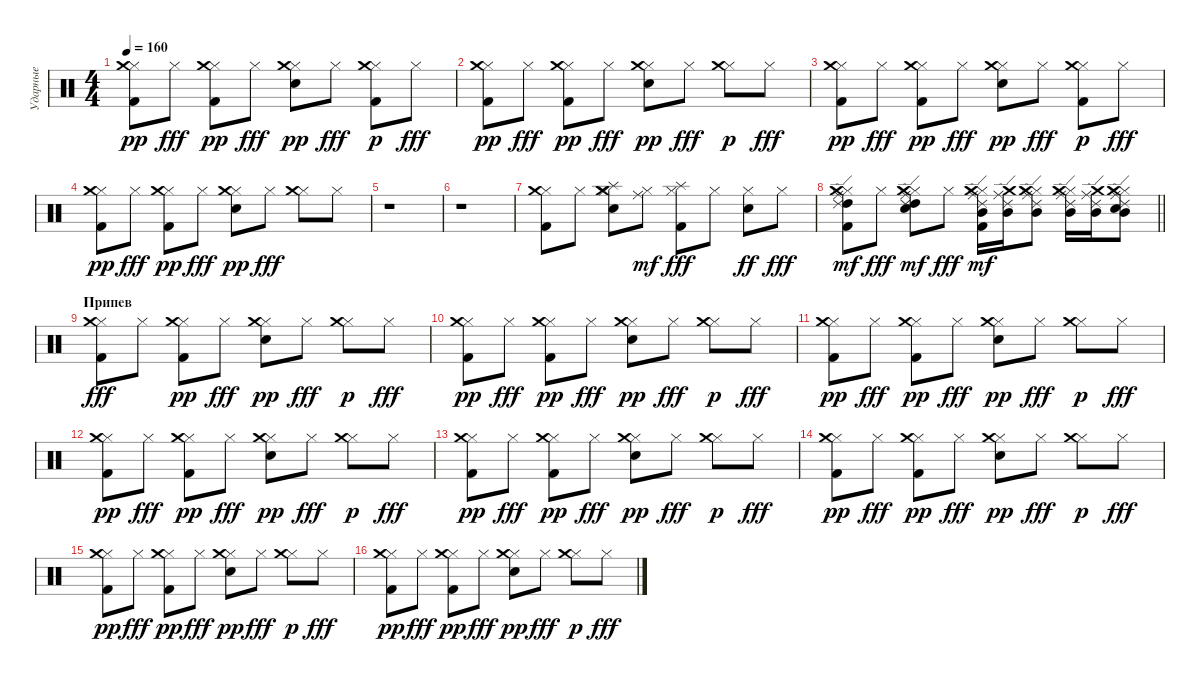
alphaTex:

\track ("Ударные" "Ударные") {instrument percussion}
\staff {score}
\articulation defaults
\ts (4 4)
\tempo 160
\clef neutral
\ks c
("Hi-Hat (closed)" "Kick (hit) 2" "Crash medium (hit)").8{dy pp} "Hi-Hat (closed)".8{dy fff} ("Hi-Hat (closed)" "Kick (hit) 2" "Crash medium (hit)").8{dy pp} "Hi-Hat (closed)".8{dy fff} ("Hi-Hat (closed)" "Snare (hit) 2" "Crash medium (hit)").8{dy pp} "Hi-Hat (closed)".8{dy fff} ("Hi-Hat (closed)" "Kick (hit) 2" "Crash medium (hit)").8{dy p} "Hi-Hat (closed)".8{dy fff} |
("Hi-Hat (closed)" "Kick (hit) 2" "Crash medium (hit)").8{dy pp} "Hi-Hat (closed)".8{dy fff} ("Hi-Hat (closed)" "Kick (hit) 2" "Crash medium (hit)").8{dy pp} "Hi-Hat (closed)".8{dy fff} ("Hi-Hat (closed)" "Snare (hit) 2" "Crash medium (hit)").8{dy pp} "Hi-Hat (closed)".8{dy fff} ("Hi-Hat (closed)" "Crash medium (hit)").8{dy p} "Hi-Hat (closed)".8{dy fff} |
("Hi-Hat (closed)" "Kick (hit) 2" "Crash medium (hit)").8{dy pp} "Hi-Hat (closed)".8{dy fff} ("Hi-Hat (closed)" "Kick (hit) 2" "Crash medium (hit)").8{dy pp} "Hi-Hat (closed)".8{dy fff} ("Hi-Hat (closed)" "Snare (hit) 2" "Crash medium (hit)").8{dy pp} "Hi-Hat (closed)".8{dy fff} ("Hi-Hat (closed)" "Kick (hit) 2" "Crash medium (hit)").8{dy p} "Hi-Hat (closed)".8{dy fff} |
("Hi-Hat (closed)" "Kick (hit) 2" "Crash medium (hit)").8{dy pp} "Hi-Hat (closed)".8{dy fff} ("Hi-Hat (closed)" "Kick (hit) 2" "Crash medium (hit)").8{dy pp} "Hi-Hat (closed)".8{dy fff} ("Hi-Hat (closed)" "Snare (hit) 2" "Crash medium (hit)").8{dy pp} "Hi-Hat (closed)".8{dy fff} ("Hi-Hat (closed)" "Crash medium (hit)").8 "Hi-Hat (closed)".8 |
r.1 |
r.1 |
("Hi-Hat (closed)" "Kick (hit) 2" "Crash medium (hit)").8 "Hi-Hat (closed)".8 ("Hi-Hat (closed)" "Snare (hit) 2" "Crash medium (hit)" "Splash (hit)").8 ("Hi-Hat (closed)" "Ride (middle)").8{dy mf} ("Hi-Hat (closed)" "Kick (hit) 2" "Splash (hit)").8{dy fff} "Hi-Hat (closed)".8 ("Hi-Hat (closed)" "Snare (hit) 2").8{dy ff} "Hi-Hat (closed)".8{dy fff} |
\barLineRight lightlight
("Hi-Hat (closed)" "Kick (hit) 2" "High Tom (hit)" "Ride (middle)" "Ride (edge) 2" "Crash medium (hit)").8{dy mf} "Hi-Hat (closed)".8{dy fff} ("Hi-Hat (closed)" "Snare (hit) 2" "High Tom (hit)" "Ride (middle)" "Ride (edge) 2" "Crash medium (hit)").8{dy mf} "Hi-Hat (closed)".8{dy fff} ("Hi-Hat (closed)" "Kick (hit) 2" "Mid Tom (hit)" "Ride (middle)" "Ride (edge) 2" "Crash medium (hit)").16{dy mf} ("Mid Tom (hit)" "Ride (middle)" "Ride (edge) 2" "Crash medium (hit)").16 ("Hi-Hat (closed)" "Mid Tom (hit)" "Ride (middle)" "Ride (edge) 2" "Crash medium (hit)").8 ("Hi-Hat (closed)" "Mid Tom (hit)" "Ride (middle)" "Ride (edge) 2" "Crash medium (hit)").16 ("Mid Tom (hit)" "Ride (middle)" "Ride (edge) 2" "Crash medium (hit)").16 ("Hi-Hat (closed)" "Snare (hit) 2" "Mid Tom (hit)" "Ride (middle)" "Ride (edge) 2" "Crash medium (hit)").8 |
\section ("" "Припев")
("Hi-Hat (closed)" "Kick (hit) 2" "Crash medium (hit)").8{dy fff} "Hi-Hat (closed)".8 ("Hi-Hat (closed)" "Kick (hit) 2" "Crash medium (hit)").8{dy pp} "Hi-Hat (closed)".8{dy fff} ("Hi-Hat (closed)" "Snare (hit) 2" "Crash medium (hit)").8{dy pp} "Hi-Hat (closed)".8{dy fff} ("Hi-Hat (closed)" "Crash medium (hit)").8{dy p} "Hi-Hat (closed)".8{dy fff} |
("Hi-Hat (closed)" "Kick (hit) 2" "Crash medium (hit)").8{dy pp} "Hi-Hat (closed)".8{dy fff} ("Hi-Hat (closed)" "Kick (hit) 2" "Crash medium (hit)").8{dy pp} "Hi-Hat (closed)".8{dy fff} ("Hi-Hat (closed)" "Snare (hit) 2" "Crash medium (hit)").8{dy pp} "Hi-Hat (closed)".8{dy fff} ("Hi-Hat (closed)" "Crash medium (hit)").8{dy p} "Hi-Hat (closed)".8{dy fff} |
("Hi-Hat (closed)" "Kick (hit) 2" "Crash medium (hit)").8{dy pp} "Hi-Hat (closed)".8{dy fff} ("Hi-Hat (closed)" "Kick (hit) 2" "Crash medium (hit)").8{dy pp} "Hi-Hat (closed)".8{dy fff} ("Hi-Hat (closed)" "Snare (hit) 2" "Crash medium (hit)").8{dy pp} "Hi-Hat (closed)".8{dy fff} ("Hi-Hat (closed)" "Crash medium (hit)").8{dy p} "Hi-Hat (closed)".8{dy fff} |
("Hi-Hat (closed)" "Kick (hit) 2" "Crash medium (hit)").8{dy pp} "Hi-Hat (closed)".8{dy fff} ("Hi-Hat (closed)" "Kick (hit) 2" "Crash medium (hit)").8{dy pp} "Hi-Hat (closed)".8{dy fff} ("Hi-Hat (closed)" "Snare (hit) 2" "Crash medium (hit)").8{dy pp} "Hi-Hat (closed)".8{dy fff} ("Hi-Hat (closed)" "Crash medium (hit)").8{dy p} "Hi-Hat (closed)".8{dy fff} |
("Hi-Hat (closed)" "Kick (hit) 2" "Crash medium (hit)").8{dy pp} "Hi-Hat (closed)".8{dy fff} ("Hi-Hat (closed)" "Kick (hit) 2" "Crash medium (hit)").8{dy pp} "Hi-Hat (closed)".8{dy fff} ("Hi-Hat (closed)" "Snare (hit) 2" "Crash medium (hit)").8{dy pp} "Hi-Hat (closed)".8{dy fff} ("Hi-Hat (closed)" "Crash medium (hit)").8{dy p} "Hi-Hat (closed)".8{dy fff} |
("Hi-Hat (closed)" "Kick (hit) 2" "Crash medium (hit)").8{dy pp} "Hi-Hat (closed)".8{dy fff} ("Hi-Hat (closed)" "Kick (hit) 2" "Crash medium (hit)").8{dy pp} "Hi-Hat (closed)".8{dy fff} ("Hi-Hat (closed)" "Snare (hit) 2" "Crash medium (hit)").8{dy pp} "Hi-Hat (closed)".8{dy fff} ("Hi-Hat (closed)" "Crash medium (hit)").8{dy p} "Hi-Hat (closed)".8{dy fff} |
("Hi-Hat (closed)" "Kick (hit) 2" "Crash medium (hit)").8{dy pp} "Hi-Hat (closed)".8{dy fff} ("Hi-Hat (closed)" "Kick (hit) 2" "Crash medium (hit)").8{dy pp} "Hi-Hat (closed)".8{dy fff} ("Hi-Hat (closed)" "Snare (hit) 2" "Crash medium (hit)").8{dy pp} "Hi-Hat (closed)".8{dy fff} ("Hi-Hat (closed)" "Crash medium (hit)").8{dy p} "Hi-Hat (closed)".8{dy fff} |
("Hi-Hat (closed)" "Kick (hit) 2" "Crash medium (hit)").8{dy pp} "Hi-Hat (closed)".8{dy fff} ("Hi-Hat (closed)" "Kick (hit) 2" "Crash medium (hit)").8{dy pp} "Hi-Hat (closed)".8{dy fff} ("Hi-Hat (closed)" "Snare (hit) 2" "Crash medium (hit)").8{dy pp} "Hi-Hat (closed)".8{dy fff} ("Hi-Hat (closed)" "Crash medium (hit)").8{dy p} "Hi-Hat (closed)".8{dy fff}
